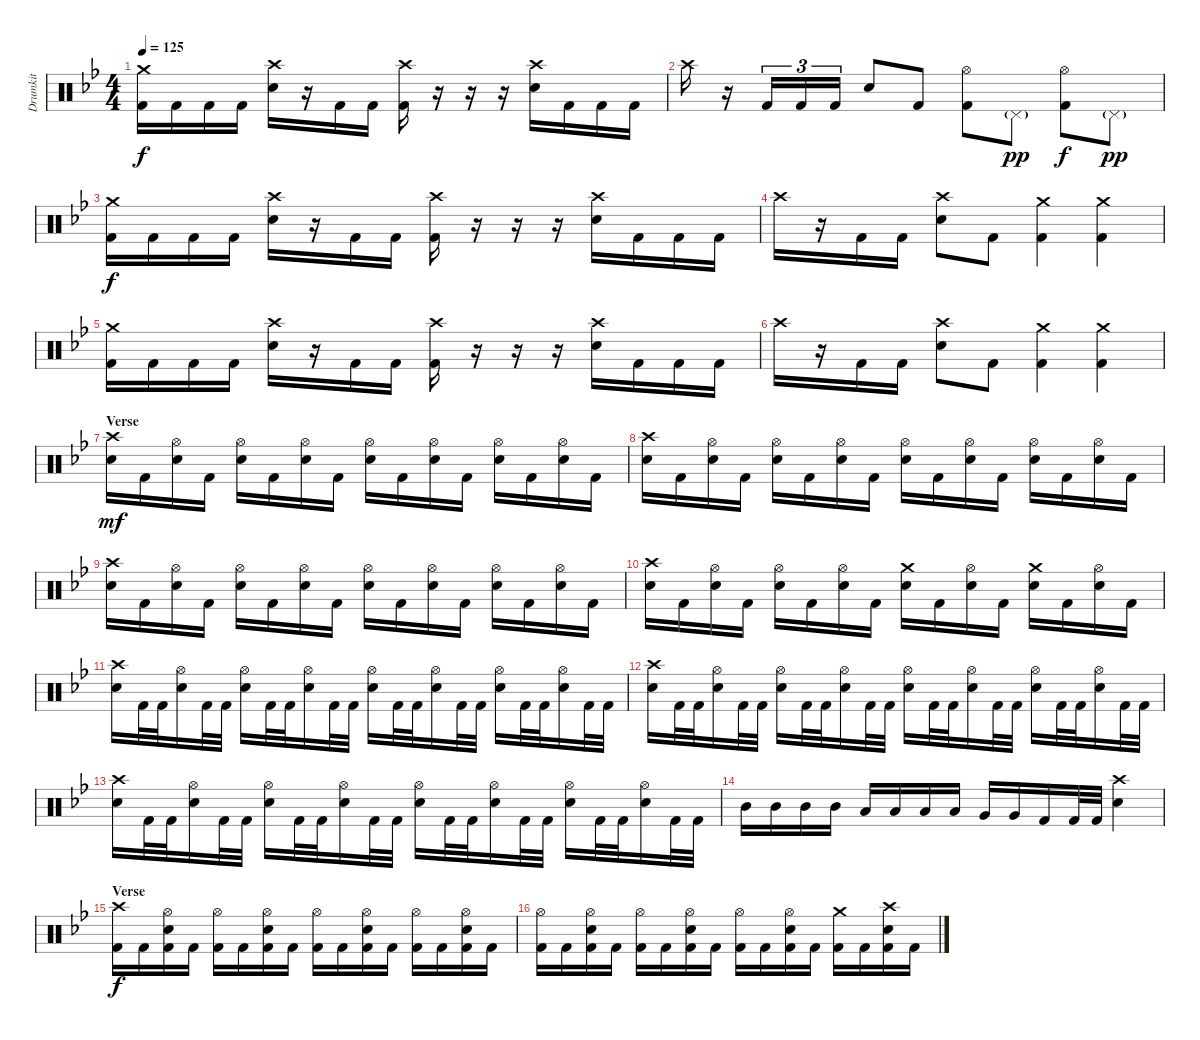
\track ("Drumkit" "Drumkit") {instrument percussion}
\staff {score}
\articulation defaults
\ts (4 4)
\tempo 125
\clef neutral
\ks bb
("Crash medium (hit)" "Kick (hit) 2").16{dy f} "Kick (hit) 2".16 "Kick (hit) 2".16 "Kick (hit) 2".16 ("Crash high (hit)" "Snare (hit) 2").16 r.16 "Kick (hit) 2".16 "Kick (hit) 2".16 ("Crash high (hit)" "Kick (hit) 2").16 r.16 r.16 r.16 ("Crash high (hit)" "Snare (hit) 2").16 "Kick (hit) 2".16 "Kick (hit) 2".16 "Kick (hit) 2".16 |
"Crash high (hit)".16 r.16 "Kick (hit) 2".16{tu (3 2)} "Kick (hit) 2".16{tu (3 2)} "Kick (hit) 2".16{tu (3 2)} "Snare (hit) 2".8 "Kick (hit) 2".8 ("Hi-Hat (open)" "Kick (hit) 2").8 "Pedal Hi-Hat (hit)"{g}.8{dy pp} ("Hi-Hat (open)" "Kick (hit) 2").8{dy f} "Pedal Hi-Hat (hit)"{g}.8{dy pp} |
("Crash medium (hit)" "Kick (hit) 2").16{dy f} "Kick (hit) 2".16 "Kick (hit) 2".16 "Kick (hit) 2".16 ("Crash high (hit)" "Snare (hit) 2").16 r.16 "Kick (hit) 2".16 "Kick (hit) 2".16 ("Crash high (hit)" "Kick (hit) 2").16 r.16 r.16 r.16 ("Crash high (hit)" "Snare (hit) 2").16 "Kick (hit) 2".16 "Kick (hit) 2".16 "Kick (hit) 2".16 |
"Crash high (hit)".16 r.16 "Kick (hit) 2".16 "Kick (hit) 2".16 ("Crash high (hit)" "Snare (hit) 2").8 "Kick (hit) 2".8 ("Crash medium (hit)" "Kick (hit) 2").4 ("Crash medium (hit)" "Kick (hit) 2").4 |
("Crash medium (hit)" "Kick (hit) 2").16 "Kick (hit) 2".16 "Kick (hit) 2".16 "Kick (hit) 2".16 ("Crash high (hit)" "Snare (hit) 2").16 r.16 "Kick (hit) 2".16 "Kick (hit) 2".16 ("Crash high (hit)" "Kick (hit) 2").16 r.16 r.16 r.16 ("Crash high (hit)" "Snare (hit) 2").16 "Kick (hit) 2".16 "Kick (hit) 2".16 "Kick (hit) 2".16 |
"Crash high (hit)".16 r.16 "Kick (hit) 2".16 "Kick (hit) 2".16 ("Crash high (hit)" "Snare (hit) 2").8 "Kick (hit) 2".8 ("Crash medium (hit)" "Kick (hit) 2").4 ("Crash medium (hit)" "Kick (hit) 2").4 |
\section ("" "Verse")
("Crash high (hit)" "Snare (hit) 2").16{dy mf} "Kick (hit) 2".16 ("Hi-Hat (open)" "Snare (hit) 2").16 "Kick (hit) 2".16 ("Hi-Hat (open)" "Snare (hit) 2").16 "Kick (hit) 2".16 ("Hi-Hat (open)" "Snare (hit) 2").16 "Kick (hit) 2".16 ("Hi-Hat (open)" "Snare (hit) 2").16 "Kick (hit) 2".16 ("Hi-Hat (open)" "Snare (hit) 2").16 "Kick (hit) 2".16 ("Hi-Hat (open)" "Snare (hit) 2").16 "Kick (hit) 2".16 ("Hi-Hat (open)" "Snare (hit) 2").16 "Kick (hit) 2".16 |
("Crash high (hit)" "Snare (hit) 2").16 "Kick (hit) 2".16 ("Hi-Hat (open)" "Snare (hit) 2").16 "Kick (hit) 2".16 ("Hi-Hat (open)" "Snare (hit) 2").16 "Kick (hit) 2".16 ("Hi-Hat (open)" "Snare (hit) 2").16 "Kick (hit) 2".16 ("Hi-Hat (open)" "Snare (hit) 2").16 "Kick (hit) 2".16 ("Hi-Hat (open)" "Snare (hit) 2").16 "Kick (hit) 2".16 ("Hi-Hat (open)" "Snare (hit) 2").16 "Kick (hit) 2".16 ("Hi-Hat (open)" "Snare (hit) 2").16 "Kick (hit) 2".16 |
("Crash high (hit)" "Snare (hit) 2").16 "Kick (hit) 2".16 ("Hi-Hat (open)" "Snare (hit) 2").16 "Kick (hit) 2".16 ("Hi-Hat (open)" "Snare (hit) 2").16 "Kick (hit) 2".16 ("Hi-Hat (open)" "Snare (hit) 2").16 "Kick (hit) 2".16 ("Hi-Hat (open)" "Snare (hit) 2").16 "Kick (hit) 2".16 ("Hi-Hat (open)" "Snare (hit) 2").16 "Kick (hit) 2".16 ("Hi-Hat (open)" "Snare (hit) 2").16 "Kick (hit) 2".16 ("Hi-Hat (open)" "Snare (hit) 2").16 "Kick (hit) 2".16 |
("Crash high (hit)" "Snare (hit) 2").16 "Kick (hit) 2".16 ("Hi-Hat (open)" "Snare (hit) 2").16 "Kick (hit) 2".16 ("Hi-Hat (open)" "Snare (hit) 2").16 "Kick (hit) 2".16 ("Hi-Hat (open)" "Snare (hit) 2").16 "Kick (hit) 2".16 ("Crash medium (hit)" "Snare (hit) 2").16 "Kick (hit) 2".16 ("Hi-Hat (open)" "Snare (hit) 2").16 "Kick (hit) 2".16 ("Crash medium (hit)" "Snare (hit) 2").16 "Kick (hit) 2".16 ("Hi-Hat (open)" "Snare (hit) 2").16 "Kick (hit) 2".16 |
("Crash high (hit)" "Snare (hit) 2").16 "Kick (hit) 2".32 "Kick (hit) 2".32 ("Hi-Hat (open)" "Snare (hit) 2").16 "Kick (hit) 2".32 "Kick (hit) 2".32 ("Hi-Hat (open)" "Snare (hit) 2").16 "Kick (hit) 2".32 "Kick (hit) 2".32 ("Hi-Hat (open)" "Snare (hit) 2").16 "Kick (hit) 2".32 "Kick (hit) 2".32 ("Hi-Hat (open)" "Snare (hit) 2").16 "Kick (hit) 2".32 "Kick (hit) 2".32 ("Hi-Hat (open)" "Snare (hit) 2").16 "Kick (hit) 2".32 "Kick (hit) 2".32 ("Hi-Hat (open)" "Snare (hit) 2").16 "Kick (hit) 2".32 "Kick (hit) 2".32 ("Hi-Hat (open)" "Snare (hit) 2").16 "Kick (hit) 2".32 "Kick (hit) 2".32 |
("Crash high (hit)" "Snare (hit) 2").16 "Kick (hit) 2".32 "Kick (hit) 2".32 ("Hi-Hat (open)" "Snare (hit) 2").16 "Kick (hit) 2".32 "Kick (hit) 2".32 ("Hi-Hat (open)" "Snare (hit) 2").16 "Kick (hit) 2".32 "Kick (hit) 2".32 ("Hi-Hat (open)" "Snare (hit) 2").16 "Kick (hit) 2".32 "Kick (hit) 2".32 ("Hi-Hat (open)" "Snare (hit) 2").16 "Kick (hit) 2".32 "Kick (hit) 2".32 ("Hi-Hat (open)" "Snare (hit) 2").16 "Kick (hit) 2".32 "Kick (hit) 2".32 ("Hi-Hat (open)" "Snare (hit) 2").16 "Kick (hit) 2".32 "Kick (hit) 2".32 ("Hi-Hat (open)" "Snare (hit) 2").16 "Kick (hit) 2".32 "Kick (hit) 2".32 |
("Crash high (hit)" "Snare (hit) 2").16 "Kick (hit) 2".32 "Kick (hit) 2".32 ("Hi-Hat (open)" "Snare (hit) 2").16 "Kick (hit) 2".32 "Kick (hit) 2".32 ("Hi-Hat (open)" "Snare (hit) 2").16 "Kick (hit) 2".32 "Kick (hit) 2".32 ("Hi-Hat (open)" "Snare (hit) 2").16 "Kick (hit) 2".32 "Kick (hit) 2".32 ("Hi-Hat (open)" "Snare (hit) 2").16 "Kick (hit) 2".32 "Kick (hit) 2".32 ("Hi-Hat (open)" "Snare (hit) 2").16 "Kick (hit) 2".32 "Kick (hit) 2".32 ("Hi-Hat (open)" "Snare (hit) 2").16 "Kick (hit) 2".32 "Kick (hit) 2".32 ("Hi-Hat (open)" "Snare (hit) 2").16 "Kick (hit) 2".32 "Kick (hit) 2".32 |
"Mid Tom (hit)".16 "Mid Tom (hit)".16 "Mid Tom (hit)".16 "Mid Tom (hit)".16 "Low Tom (hit)".16 "Low Tom (hit)".16 "Low Tom (hit)".16 "Low Tom (hit)".16 "Very Low Tom (hit)".16 "Very Low Tom (hit)".16 "Kick (hit) 2".16 "Kick (hit) 2".32 "Kick (hit) 2".32 ("Crash high (hit)" "Snare (hit) 2").4 |
\section ("" "Verse")
("Crash high (hit)" "Kick (hit) 2").16{dy f} "Kick (hit) 2".16 ("Hi-Hat (open)" "Snare (hit) 2" "Kick (hit) 2").16 "Kick (hit) 2".16 ("Hi-Hat (open)" "Kick (hit) 2").16 "Kick (hit) 2".16 ("Hi-Hat (open)" "Snare (hit) 2" "Kick (hit) 2").16 "Kick (hit) 2".16 ("Hi-Hat (open)" "Kick (hit) 2").16 "Kick (hit) 2".16 ("Hi-Hat (open)" "Snare (hit) 2" "Kick (hit) 2").16 "Kick (hit) 2".16 ("Hi-Hat (open)" "Kick (hit) 2").16 "Kick (hit) 2".16 ("Hi-Hat (open)" "Snare (hit) 2" "Kick (hit) 2").16 "Kick (hit) 2".16 |
("Hi-Hat (open)" "Kick (hit) 2").16 "Kick (hit) 2".16 ("Hi-Hat (open)" "Snare (hit) 2" "Kick (hit) 2").16 "Kick (hit) 2".16 ("Hi-Hat (open)" "Kick (hit) 2").16 "Kick (hit) 2".16 ("Hi-Hat (open)" "Snare (hit) 2" "Kick (hit) 2").16 "Kick (hit) 2".16 ("Hi-Hat (open)" "Kick (hit) 2").16 "Kick (hit) 2".16 ("Hi-Hat (open)" "Snare (hit) 2" "Kick (hit) 2").16 "Kick (hit) 2".16 ("Crash medium (hit)" "Kick (hit) 2").16 "Kick (hit) 2".16 ("Crash high (hit)" "Snare (hit) 2" "Kick (hit) 2").16 "Kick (hit) 2".16
